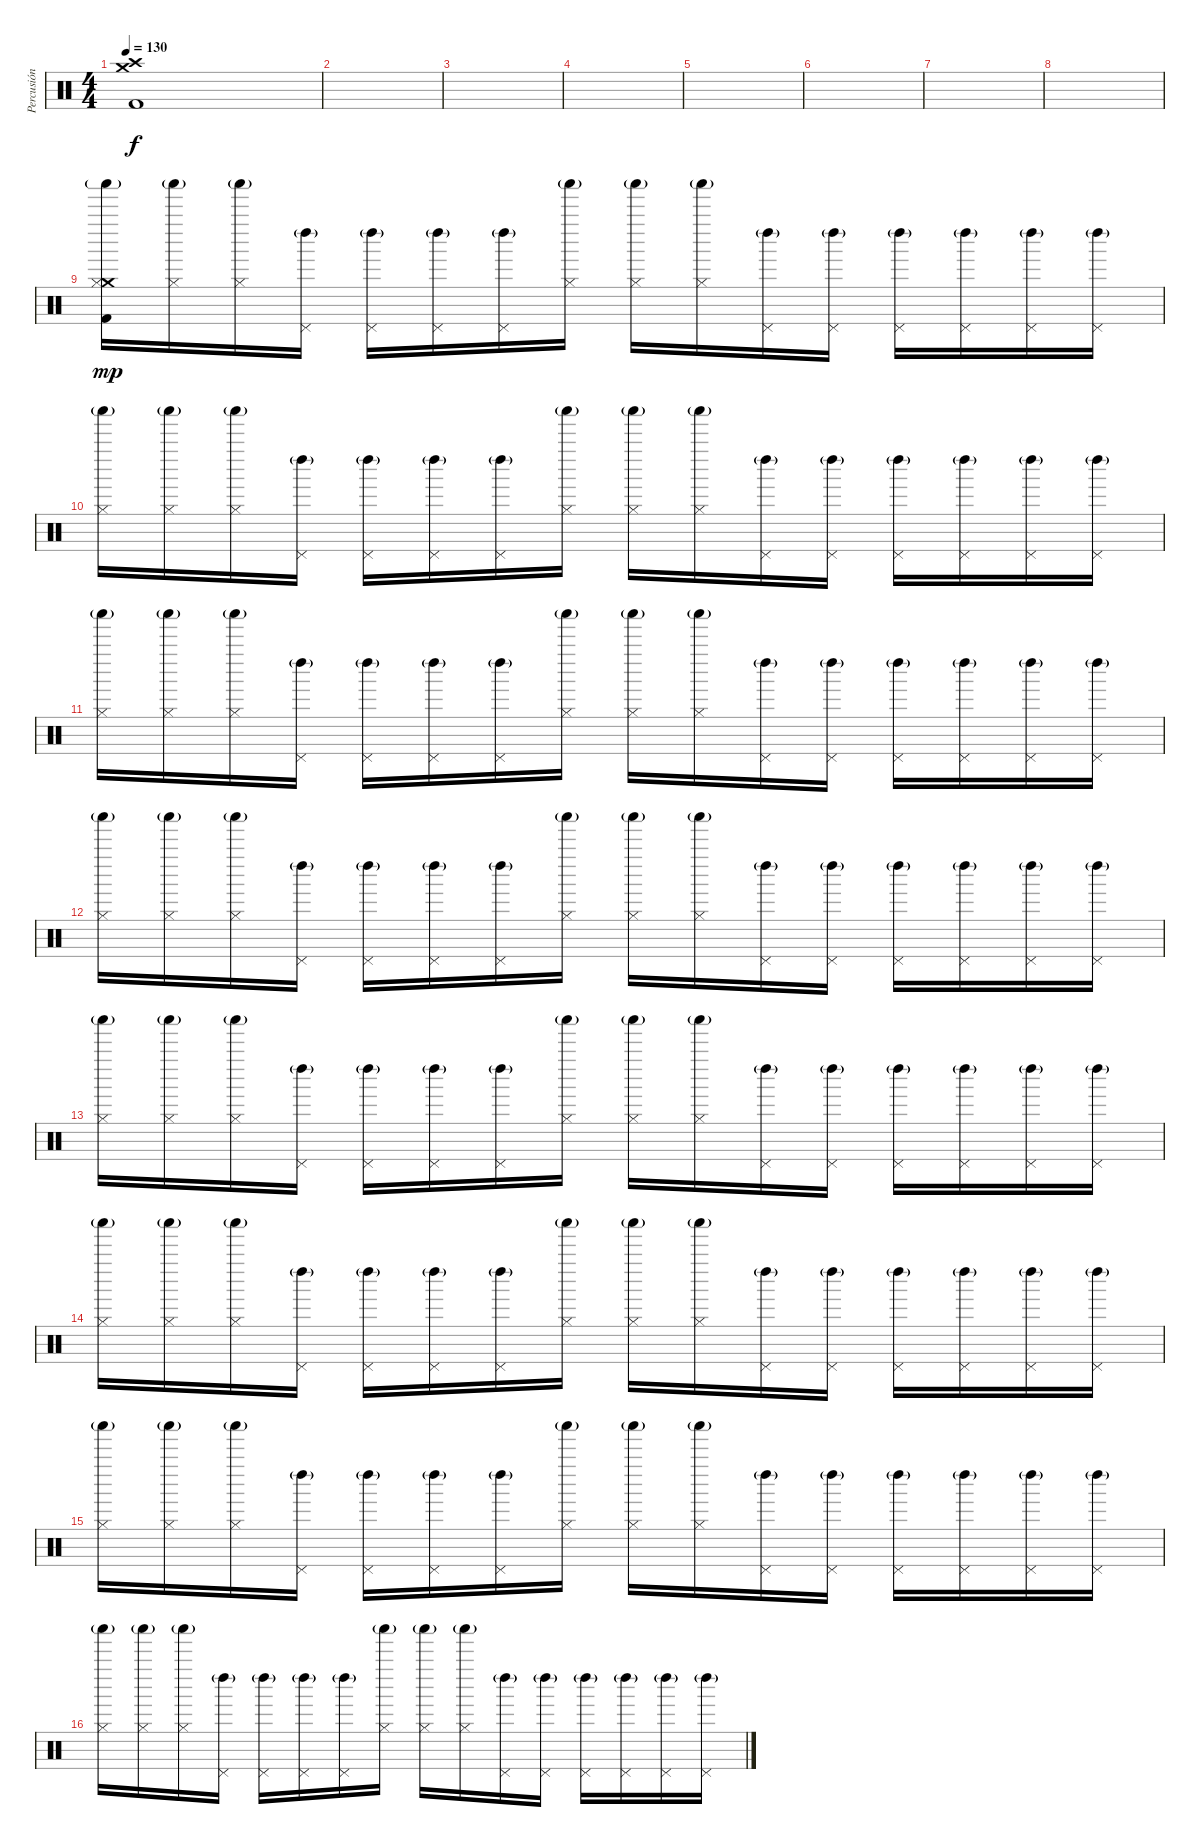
\track ("Percusión" "Percusión") {instrument percussion}
\staff {score}
\articulation defaults
\ts (4 4)
\tempo 130
\clef neutral
\ks c
("Crash medium (hit)" "Crash high (hit)" "Kick (hit) 2").1{dy f} |
|
|
|
|
|
|
|
("Crash medium (hit)" "Shaker (hit)"{g} "Hi-Hat (closed)" "Kick (hit) 2").16{dy mp volume 12} ("Shaker (hit)"{g} "Hi-Hat (closed)").16 ("Shaker (hit)"{g} "Hi-Hat (closed)").16 ("Left Maraca (hit)"{g} "Pedal Hi-Hat (hit)").16 ("Left Maraca (hit)"{g} "Pedal Hi-Hat (hit)").16 ("Left Maraca (hit)"{g} "Pedal Hi-Hat (hit)").16 ("Left Maraca (hit)"{g} "Pedal Hi-Hat (hit)").16 ("Shaker (hit)"{g} "Hi-Hat (closed)").16 ("Shaker (hit)"{g} "Hi-Hat (closed)").16 ("Shaker (hit)"{g} "Hi-Hat (closed)").16 ("Left Maraca (hit)"{g} "Pedal Hi-Hat (hit)").16 ("Left Maraca (hit)"{g} "Pedal Hi-Hat (hit)").16 ("Left Maraca (hit)"{g} "Pedal Hi-Hat (hit)").16 ("Left Maraca (hit)"{g} "Pedal Hi-Hat (hit)").16 ("Left Maraca (hit)"{g} "Pedal Hi-Hat (hit)").16 ("Left Maraca (hit)"{g} "Pedal Hi-Hat (hit)").16 |
("Shaker (hit)"{g} "Hi-Hat (closed)").16 ("Shaker (hit)"{g} "Hi-Hat (closed)").16 ("Shaker (hit)"{g} "Hi-Hat (closed)").16 ("Left Maraca (hit)"{g} "Pedal Hi-Hat (hit)").16 ("Left Maraca (hit)"{g} "Pedal Hi-Hat (hit)").16 ("Left Maraca (hit)"{g} "Pedal Hi-Hat (hit)").16 ("Left Maraca (hit)"{g} "Pedal Hi-Hat (hit)").16 ("Shaker (hit)"{g} "Hi-Hat (closed)").16 ("Shaker (hit)"{g} "Hi-Hat (closed)").16 ("Shaker (hit)"{g} "Hi-Hat (closed)").16 ("Left Maraca (hit)"{g} "Pedal Hi-Hat (hit)").16 ("Left Maraca (hit)"{g} "Pedal Hi-Hat (hit)").16 ("Left Maraca (hit)"{g} "Pedal Hi-Hat (hit)").16 ("Left Maraca (hit)"{g} "Pedal Hi-Hat (hit)").16 ("Left Maraca (hit)"{g} "Pedal Hi-Hat (hit)").16 ("Left Maraca (hit)"{g} "Pedal Hi-Hat (hit)").16 |
("Shaker (hit)"{g} "Hi-Hat (closed)").16 ("Shaker (hit)"{g} "Hi-Hat (closed)").16 ("Shaker (hit)"{g} "Hi-Hat (closed)").16 ("Left Maraca (hit)"{g} "Pedal Hi-Hat (hit)").16 ("Left Maraca (hit)"{g} "Pedal Hi-Hat (hit)").16 ("Left Maraca (hit)"{g} "Pedal Hi-Hat (hit)").16 ("Left Maraca (hit)"{g} "Pedal Hi-Hat (hit)").16 ("Shaker (hit)"{g} "Hi-Hat (closed)").16 ("Shaker (hit)"{g} "Hi-Hat (closed)").16 ("Shaker (hit)"{g} "Hi-Hat (closed)").16 ("Left Maraca (hit)"{g} "Pedal Hi-Hat (hit)").16 ("Left Maraca (hit)"{g} "Pedal Hi-Hat (hit)").16 ("Left Maraca (hit)"{g} "Pedal Hi-Hat (hit)").16 ("Left Maraca (hit)"{g} "Pedal Hi-Hat (hit)").16 ("Left Maraca (hit)"{g} "Pedal Hi-Hat (hit)").16 ("Left Maraca (hit)"{g} "Pedal Hi-Hat (hit)").16 |
("Shaker (hit)"{g} "Hi-Hat (closed)").16 ("Shaker (hit)"{g} "Hi-Hat (closed)").16 ("Shaker (hit)"{g} "Hi-Hat (closed)").16 ("Left Maraca (hit)"{g} "Pedal Hi-Hat (hit)").16 ("Left Maraca (hit)"{g} "Pedal Hi-Hat (hit)").16 ("Left Maraca (hit)"{g} "Pedal Hi-Hat (hit)").16 ("Left Maraca (hit)"{g} "Pedal Hi-Hat (hit)").16 ("Shaker (hit)"{g} "Hi-Hat (closed)").16 ("Shaker (hit)"{g} "Hi-Hat (closed)").16 ("Shaker (hit)"{g} "Hi-Hat (closed)").16 ("Left Maraca (hit)"{g} "Pedal Hi-Hat (hit)").16 ("Left Maraca (hit)"{g} "Pedal Hi-Hat (hit)").16 ("Left Maraca (hit)"{g} "Pedal Hi-Hat (hit)").16 ("Left Maraca (hit)"{g} "Pedal Hi-Hat (hit)").16 ("Left Maraca (hit)"{g} "Pedal Hi-Hat (hit)").16 ("Left Maraca (hit)"{g} "Pedal Hi-Hat (hit)").16 |
("Shaker (hit)"{g} "Hi-Hat (closed)").16 ("Shaker (hit)"{g} "Hi-Hat (closed)").16 ("Shaker (hit)"{g} "Hi-Hat (closed)").16 ("Left Maraca (hit)"{g} "Pedal Hi-Hat (hit)").16 ("Left Maraca (hit)"{g} "Pedal Hi-Hat (hit)").16 ("Left Maraca (hit)"{g} "Pedal Hi-Hat (hit)").16 ("Left Maraca (hit)"{g} "Pedal Hi-Hat (hit)").16 ("Shaker (hit)"{g} "Hi-Hat (closed)").16 ("Shaker (hit)"{g} "Hi-Hat (closed)").16 ("Shaker (hit)"{g} "Hi-Hat (closed)").16 ("Left Maraca (hit)"{g} "Pedal Hi-Hat (hit)").16 ("Left Maraca (hit)"{g} "Pedal Hi-Hat (hit)").16 ("Left Maraca (hit)"{g} "Pedal Hi-Hat (hit)").16 ("Left Maraca (hit)"{g} "Pedal Hi-Hat (hit)").16 ("Left Maraca (hit)"{g} "Pedal Hi-Hat (hit)").16 ("Left Maraca (hit)"{g} "Pedal Hi-Hat (hit)").16 |
("Shaker (hit)"{g} "Hi-Hat (closed)").16 ("Shaker (hit)"{g} "Hi-Hat (closed)").16 ("Shaker (hit)"{g} "Hi-Hat (closed)").16 ("Left Maraca (hit)"{g} "Pedal Hi-Hat (hit)").16 ("Left Maraca (hit)"{g} "Pedal Hi-Hat (hit)").16 ("Left Maraca (hit)"{g} "Pedal Hi-Hat (hit)").16 ("Left Maraca (hit)"{g} "Pedal Hi-Hat (hit)").16 ("Shaker (hit)"{g} "Hi-Hat (closed)").16 ("Shaker (hit)"{g} "Hi-Hat (closed)").16 ("Shaker (hit)"{g} "Hi-Hat (closed)").16 ("Left Maraca (hit)"{g} "Pedal Hi-Hat (hit)").16 ("Left Maraca (hit)"{g} "Pedal Hi-Hat (hit)").16 ("Left Maraca (hit)"{g} "Pedal Hi-Hat (hit)").16 ("Left Maraca (hit)"{g} "Pedal Hi-Hat (hit)").16 ("Left Maraca (hit)"{g} "Pedal Hi-Hat (hit)").16 ("Left Maraca (hit)"{g} "Pedal Hi-Hat (hit)").16 |
("Shaker (hit)"{g} "Hi-Hat (closed)").16 ("Shaker (hit)"{g} "Hi-Hat (closed)").16 ("Shaker (hit)"{g} "Hi-Hat (closed)").16 ("Left Maraca (hit)"{g} "Pedal Hi-Hat (hit)").16 ("Left Maraca (hit)"{g} "Pedal Hi-Hat (hit)").16 ("Left Maraca (hit)"{g} "Pedal Hi-Hat (hit)").16 ("Left Maraca (hit)"{g} "Pedal Hi-Hat (hit)").16 ("Shaker (hit)"{g} "Hi-Hat (closed)").16 ("Shaker (hit)"{g} "Hi-Hat (closed)").16 ("Shaker (hit)"{g} "Hi-Hat (closed)").16 ("Left Maraca (hit)"{g} "Pedal Hi-Hat (hit)").16 ("Left Maraca (hit)"{g} "Pedal Hi-Hat (hit)").16 ("Left Maraca (hit)"{g} "Pedal Hi-Hat (hit)").16 ("Left Maraca (hit)"{g} "Pedal Hi-Hat (hit)").16 ("Left Maraca (hit)"{g} "Pedal Hi-Hat (hit)").16 ("Left Maraca (hit)"{g} "Pedal Hi-Hat (hit)").16 |
("Shaker (hit)"{g} "Hi-Hat (closed)").16 ("Shaker (hit)"{g} "Hi-Hat (closed)").16 ("Shaker (hit)"{g} "Hi-Hat (closed)").16 ("Left Maraca (hit)"{g} "Pedal Hi-Hat (hit)").16 ("Left Maraca (hit)"{g} "Pedal Hi-Hat (hit)").16 ("Left Maraca (hit)"{g} "Pedal Hi-Hat (hit)").16 ("Left Maraca (hit)"{g} "Pedal Hi-Hat (hit)").16 ("Shaker (hit)"{g} "Hi-Hat (closed)").16 ("Shaker (hit)"{g} "Hi-Hat (closed)").16 ("Shaker (hit)"{g} "Hi-Hat (closed)").16 ("Left Maraca (hit)"{g} "Pedal Hi-Hat (hit)").16 ("Left Maraca (hit)"{g} "Pedal Hi-Hat (hit)").16 ("Left Maraca (hit)"{g} "Pedal Hi-Hat (hit)").16 ("Left Maraca (hit)"{g} "Pedal Hi-Hat (hit)").16 ("Left Maraca (hit)"{g} "Pedal Hi-Hat (hit)").16 ("Left Maraca (hit)"{g} "Pedal Hi-Hat (hit)").16
